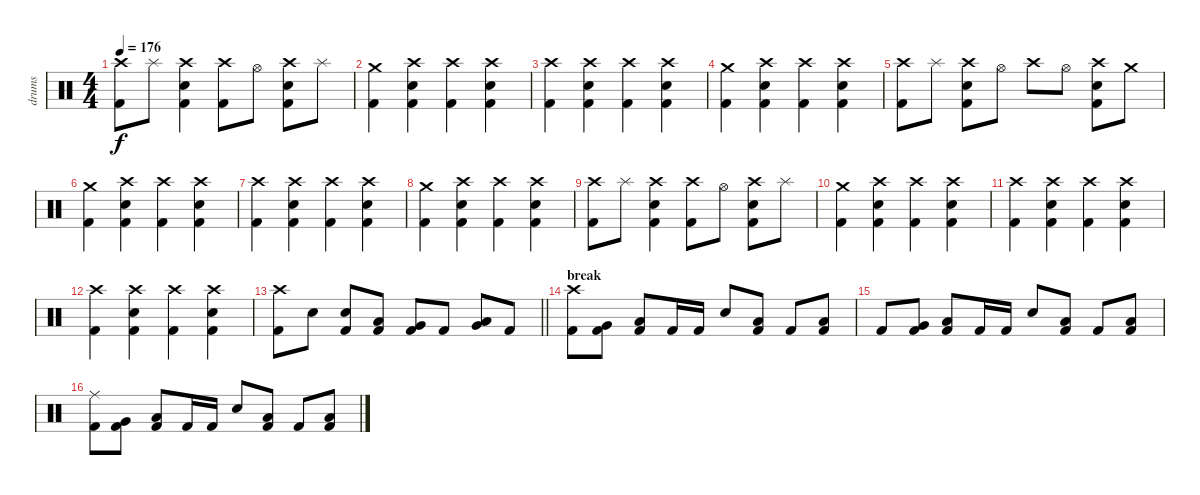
\track ("drums" "drums") {instrument percussion}
\staff {score}
\articulation defaults
\ts (4 4)
\tempo 176
\clef neutral
\ks c
("Crash high (hit)" "Kick (hit) 2").8{dy f} "Splash (hit)".8 ("Crash high (hit)" "Kick (hit) 2" "Snare (hit) 2").4 ("Crash high (hit)" "Kick (hit) 2").8 "Hi-Hat (open)".8 ("Crash high (hit)" "Snare (hit) 2" "Kick (hit) 2").8 "Splash (hit)".8 |
("Crash medium (hit)" "Kick (hit) 2").4 ("Crash high (hit)" "Snare (hit) 2" "Kick (hit) 2").4 ("Crash high (hit)" "Kick (hit) 2").4 ("Crash high (hit)" "Snare (hit) 2" "Kick (hit) 2").4 |
("Crash high (hit)" "Kick (hit) 2").4 ("Crash high (hit)" "Snare (hit) 2" "Kick (hit) 2").4 ("Crash high (hit)" "Kick (hit) 2").4 ("Crash high (hit)" "Snare (hit) 2" "Kick (hit) 2").4 |
("Crash medium (hit)" "Kick (hit) 2").4 ("Crash high (hit)" "Snare (hit) 2" "Kick (hit) 2").4 ("Crash high (hit)" "Kick (hit) 2").4 ("Crash high (hit)" "Snare (hit) 2" "Kick (hit) 2").4 |
("Crash high (hit)" "Kick (hit) 2").8 "Splash (hit)".8 ("Crash high (hit)" "Snare (hit) 2" "Kick (hit) 2").8 "Hi-Hat (open)".8 "Crash high (hit)".8 "Hi-Hat (open)".8 ("Crash high (hit)" "Snare (hit) 2" "Kick (hit) 2").8 "Crash medium (hit)".8 |
("Crash medium (hit)" "Kick (hit) 2").4 ("Crash high (hit)" "Snare (hit) 2" "Kick (hit) 2").4 ("Crash high (hit)" "Kick (hit) 2").4 ("Crash high (hit)" "Snare (hit) 2" "Kick (hit) 2").4 |
("Crash high (hit)" "Kick (hit) 2").4 ("Crash high (hit)" "Snare (hit) 2" "Kick (hit) 2").4 ("Crash high (hit)" "Kick (hit) 2").4 ("Crash high (hit)" "Snare (hit) 2" "Kick (hit) 2").4 |
("Crash medium (hit)" "Kick (hit) 2").4 ("Crash high (hit)" "Snare (hit) 2" "Kick (hit) 2").4 ("Crash high (hit)" "Kick (hit) 2").4 ("Crash high (hit)" "Snare (hit) 2" "Kick (hit) 2").4 |
("Crash high (hit)" "Kick (hit) 2").8 "Splash (hit)".8 ("Crash high (hit)" "Kick (hit) 2" "Snare (hit) 2").4 ("Crash high (hit)" "Kick (hit) 2").8 "Hi-Hat (open)".8 ("Crash high (hit)" "Snare (hit) 2" "Kick (hit) 2").8 "Splash (hit)".8 |
("Crash medium (hit)" "Kick (hit) 2").4 ("Crash high (hit)" "Snare (hit) 2" "Kick (hit) 2").4 ("Crash high (hit)" "Kick (hit) 2").4 ("Crash high (hit)" "Snare (hit) 2" "Kick (hit) 2").4 |
("Crash high (hit)" "Kick (hit) 2").4 ("Crash high (hit)" "Snare (hit) 2" "Kick (hit) 2").4 ("Crash high (hit)" "Kick (hit) 2").4 ("Crash high (hit)" "Snare (hit) 2" "Kick (hit) 2").4 |
("Crash high (hit)" "Kick (hit) 2").4 ("Crash high (hit)" "Snare (hit) 2" "Kick (hit) 2").4 ("Crash high (hit)" "Kick (hit) 2").4 ("Crash high (hit)" "Snare (hit) 2" "Kick (hit) 2").4 |
\barLineRight lightlight
("Crash high (hit)" "Kick (hit) 2").8 "Snare (hit) 2".8 ("Snare (hit) 2" "Kick (hit) 2").8 ("Low Tom (hit)" "Kick (hit) 2").8 ("Very Low Tom (hit)" "Kick (hit) 2").8 "Kick (hit) 2".8 ("Very Low Tom (hit)" "Low Floor Tom (hit)").8 "Kick (hit) 2".8 |
\section ("" "break")
("Crash high (hit)" "Kick (hit) 2").8 ("Very Low Tom (hit)" "Kick (hit) 2").8 ("Low Floor Tom (hit)" "Kick (hit) 2").8 "Kick (hit) 2".16 "Kick (hit) 2".16 "Snare (hit) 2".8 ("Low Floor Tom (hit)" "Kick (hit) 2").8 "Kick (hit) 2".8 ("Low Tom (hit)" "Kick (hit) 2").8 |
"Kick (hit) 2".8 ("Very Low Tom (hit)" "Kick (hit) 2").8 ("Low Floor Tom (hit)" "Kick (hit) 2").8 "Kick (hit) 2".16 "Kick (hit) 2".16 "Snare (hit) 2".8 ("Low Floor Tom (hit)" "Kick (hit) 2").8 "Kick (hit) 2".8 ("Low Tom (hit)" "Kick (hit) 2").8 |
("Ride (middle)" "Kick (hit) 2").8 ("Very Low Tom (hit)" "Kick (hit) 2").8 ("Low Floor Tom (hit)" "Kick (hit) 2").8 "Kick (hit) 2".16 "Kick (hit) 2".16 "Snare (hit) 2".8 ("Low Floor Tom (hit)" "Kick (hit) 2").8 "Kick (hit) 2".8 ("Low Tom (hit)" "Kick (hit) 2").8
